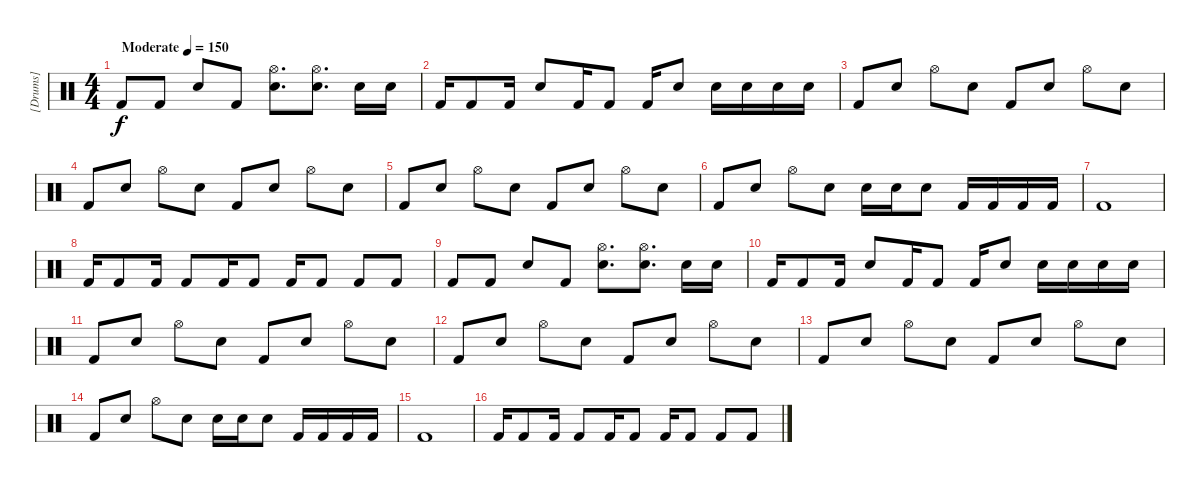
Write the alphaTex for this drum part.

\track ("[Drums]" "[Drums]") {instrument percussion}
\staff {score}
\articulation defaults
\ts (4 4)
\tempo (150 "Moderate")
\clef neutral
\ks c "Kick (hit) 2".8{dy f} "Kick (hit) 2".8 "Snare (hit) 2".8 "Kick (hit) 2".8
("Hi-Hat (open)" "Snare (hit) 2").8{d} ("Hi-Hat (open)" "Snare (hit) 2").8{d} "Snare (hit) 2".16 "Snare (hit) 2".16 |
"Kick (hit) 2".16 "Kick (hit) 2".8 "Kick (hit) 2".16 "Snare (hit) 2".8 "Kick (hit) 2".16 "Kick (hit) 2".8 "Kick (hit) 2".16 "Snare (hit) 2".8 "Snare (hit) 2".16 "Snare (hit) 2".16 "Snare (hit) 2".16 "Snare (hit) 2".16 |
"Kick (hit) 2".8 "Snare (hit) 2".8 "Hi-Hat (open)".8 "Snare (hit) 2".8 "Kick (hit) 2".8 "Snare (hit) 2".8 "Hi-Hat (open)".8 "Snare (hit) 2".8 |
"Kick (hit) 2".8 "Snare (hit) 2".8 "Hi-Hat (open)".8 "Snare (hit) 2".8 "Kick (hit) 2".8 "Snare (hit) 2".8 "Hi-Hat (open)".8 "Snare (hit) 2".8 |
"Kick (hit) 2".8 "Snare (hit) 2".8 "Hi-Hat (open)".8 "Snare (hit) 2".8 "Kick (hit) 2".8 "Snare (hit) 2".8 "Hi-Hat (open)".8 "Snare (hit) 2".8 |
"Kick (hit) 2".8 "Snare (hit) 2".8 "Hi-Hat (open)".8 "Snare (hit) 2".8 "Snare (hit) 2".16 "Snare (hit) 2".16 "Snare (hit) 2".8 "Kick (hit) 2".16 "Kick (hit) 2".16 "Kick (hit) 2".16 "Kick (hit) 2".16 |
"Kick (hit) 2".1 |
"Kick (hit) 2".16 "Kick (hit) 2".8 "Kick (hit) 2".16 "Kick (hit) 2".8 "Kick (hit) 2".16 "Kick (hit) 2".8 "Kick (hit) 2".16 "Kick (hit) 2".8 "Kick (hit) 2".8 "Kick (hit) 2".8 |
"Kick (hit) 2".8 "Kick (hit) 2".8 "Snare (hit) 2".8 "Kick (hit) 2".8 ("Hi-Hat (open)" "Snare (hit) 2").8{d} ("Hi-Hat (open)" "Snare (hit) 2").8{d} "Snare (hit) 2".16 "Snare (hit) 2".16 |
"Kick (hit) 2".16 "Kick (hit) 2".8 "Kick (hit) 2".16 "Snare (hit) 2".8 "Kick (hit) 2".16 "Kick (hit) 2".8 "Kick (hit) 2".16 "Snare (hit) 2".8 "Snare (hit) 2".16 "Snare (hit) 2".16 "Snare (hit) 2".16 "Snare (hit) 2".16 |
"Kick (hit) 2".8 "Snare (hit) 2".8 "Hi-Hat (open)".8 "Snare (hit) 2".8 "Kick (hit) 2".8 "Snare (hit) 2".8 "Hi-Hat (open)".8 "Snare (hit) 2".8 |
"Kick (hit) 2".8 "Snare (hit) 2".8 "Hi-Hat (open)".8 "Snare (hit) 2".8 "Kick (hit) 2".8 "Snare (hit) 2".8 "Hi-Hat (open)".8 "Snare (hit) 2".8 |
"Kick (hit) 2".8 "Snare (hit) 2".8 "Hi-Hat (open)".8 "Snare (hit) 2".8 "Kick (hit) 2".8 "Snare (hit) 2".8 "Hi-Hat (open)".8 "Snare (hit) 2".8 |
"Kick (hit) 2".8 "Snare (hit) 2".8 "Hi-Hat (open)".8 "Snare (hit) 2".8 "Snare (hit) 2".16 "Snare (hit) 2".16 "Snare (hit) 2".8 "Kick (hit) 2".16 "Kick (hit) 2".16 "Kick (hit) 2".16 "Kick (hit) 2".16 |
"Kick (hit) 2".1 |
"Kick (hit) 2".16 "Kick (hit) 2".8 "Kick (hit) 2".16 "Kick (hit) 2".8 "Kick (hit) 2".16 "Kick (hit) 2".8 "Kick (hit) 2".16 "Kick (hit) 2".8 "Kick (hit) 2".8 "Kick (hit) 2".8
